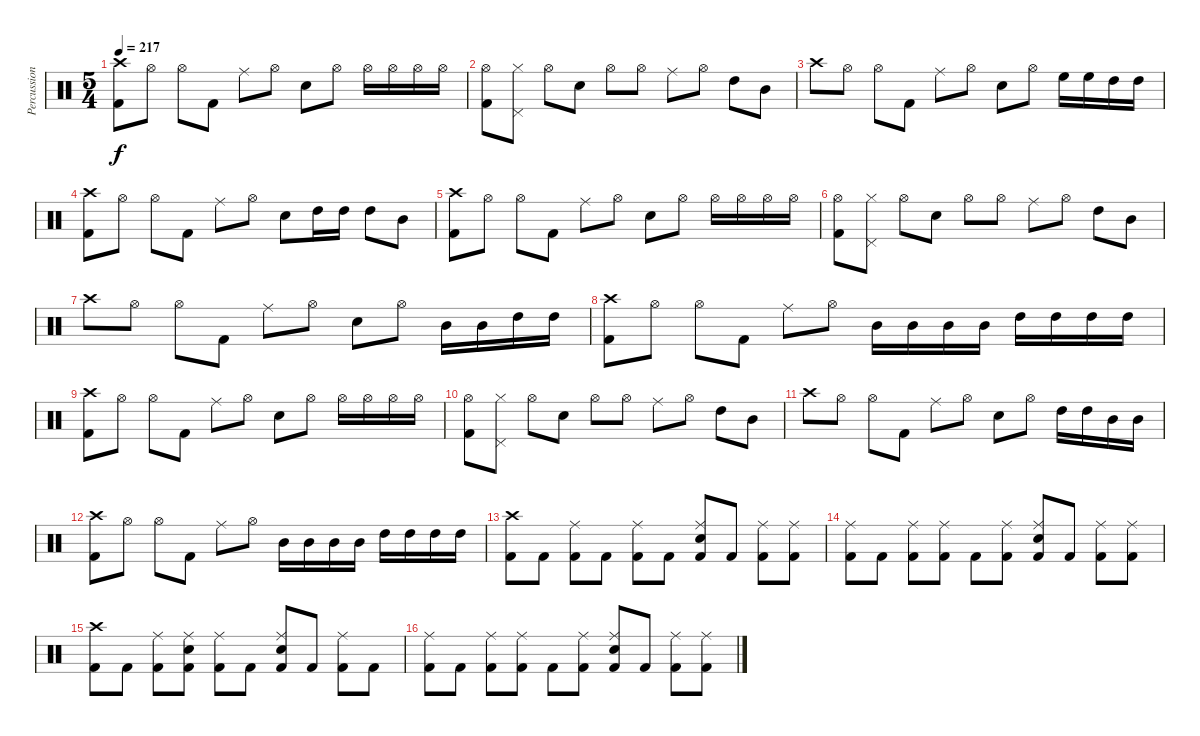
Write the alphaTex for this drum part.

\track ("Percussion" "Percussion") {instrument percussion}
\staff {score}
\articulation defaults
\ts (5 4)
\tempo 217
\clef neutral
\ks c
("Crash high (hit)" "Kick (hit) 2").8{dy f} "Hi-Hat (open)".8 "Hi-Hat (open)".8 "Kick (hit) 2".8 "Ride (middle)".8 "Hi-Hat (open)".8 "Electric Snare (hit)".8 "Hi-Hat (open)".8 "Hi-Hat (open)".16 "Hi-Hat (open)".16 "Hi-Hat (open)".16 "Hi-Hat (open)".16 |
("Hi-Hat (open)" "Kick (hit) 2").8 ("Hi-Hat (closed)" "Pedal Hi-Hat (hit)").8 "Hi-Hat (open)".8 "Electric Snare (hit)".8 "Hi-Hat (open)".8 "Hi-Hat (open)".8 "Ride (middle)".8 "Hi-Hat (open)".8 "High Tom (hit)".8 "Mid Tom (hit)".8 |
"Crash high (hit)".8 "Hi-Hat (open)".8 "Hi-Hat (open)".8 "Kick (hit) 2".8 "Ride (middle)".8 "Hi-Hat (open)".8 "Electric Snare (hit)".8 "Hi-Hat (open)".8 "High Floor Tom (hit)".16 "High Floor Tom (hit)".16 "High Tom (hit)".16 "High Tom (hit)".16 |
("Crash high (hit)" "Kick (hit) 2").8 "Hi-Hat (open)".8 "Hi-Hat (open)".8 "Kick (hit) 2".8 "Ride (middle)".8 "Hi-Hat (open)".8 "Electric Snare (hit)".8 "High Tom (hit)".16 "High Tom (hit)".16 "High Tom (hit)".8 "Mid Tom (hit)".8 |
("Crash high (hit)" "Kick (hit) 2").8 "Hi-Hat (open)".8 "Hi-Hat (open)".8 "Kick (hit) 2".8 "Ride (middle)".8 "Hi-Hat (open)".8 "Electric Snare (hit)".8 "Hi-Hat (open)".8 "Hi-Hat (open)".16 "Hi-Hat (open)".16 "Hi-Hat (open)".16 "Hi-Hat (open)".16 |
("Hi-Hat (open)" "Kick (hit) 2").8 ("Hi-Hat (closed)" "Pedal Hi-Hat (hit)").8 "Hi-Hat (open)".8 "Electric Snare (hit)".8 "Hi-Hat (open)".8 "Hi-Hat (open)".8 "Ride (middle)".8 "Hi-Hat (open)".8 "High Tom (hit)".8 "Mid Tom (hit)".8 |
"Crash high (hit)".8 "Hi-Hat (open)".8 "Hi-Hat (open)".8 "Kick (hit) 2".8 "Ride (middle)".8 "Hi-Hat (open)".8 "Electric Snare (hit)".8 "Hi-Hat (open)".8 "Mid Tom (hit)".16 "Mid Tom (hit)".16 "High Tom (hit)".16 "High Tom (hit)".16 |
("Crash high (hit)" "Kick (hit) 2").8 "Hi-Hat (open)".8 "Hi-Hat (open)".8 "Kick (hit) 2".8 "Ride (middle)".8 "Hi-Hat (open)".8 "Mid Tom (hit)".16 "Mid Tom (hit)".16 "Mid Tom (hit)".16 "Mid Tom (hit)".16 "High Tom (hit)".16 "High Tom (hit)".16 "High Tom (hit)".16 "High Tom (hit)".16 |
("Crash high (hit)" "Kick (hit) 2").8 "Hi-Hat (open)".8 "Hi-Hat (open)".8 "Kick (hit) 2".8 "Ride (middle)".8 "Hi-Hat (open)".8 "Electric Snare (hit)".8 "Hi-Hat (open)".8 "Hi-Hat (open)".16 "Hi-Hat (open)".16 "Hi-Hat (open)".16 "Hi-Hat (open)".16 |
("Hi-Hat (open)" "Kick (hit) 2").8 ("Hi-Hat (closed)" "Pedal Hi-Hat (hit)").8 "Hi-Hat (open)".8 "Electric Snare (hit)".8 "Hi-Hat (open)".8 "Hi-Hat (open)".8 "Ride (middle)".8 "Hi-Hat (open)".8 "High Tom (hit)".8 "Mid Tom (hit)".8 |
"Crash high (hit)".8 "Hi-Hat (open)".8 "Hi-Hat (open)".8 "Kick (hit) 2".8 "Ride (middle)".8 "Hi-Hat (open)".8 "Electric Snare (hit)".8 "Hi-Hat (open)".8 "High Tom (hit)".16 "High Tom (hit)".16 "Mid Tom (hit)".16 "Mid Tom (hit)".16 |
("Crash high (hit)" "Kick (hit) 2").8 "Hi-Hat (open)".8 "Hi-Hat (open)".8 "Kick (hit) 2".8 "Ride (middle)".8 "Hi-Hat (open)".8 "Mid Tom (hit)".16 "Mid Tom (hit)".16 "Mid Tom (hit)".16 "Mid Tom (hit)".16 "High Tom (hit)".16 "High Tom (hit)".16 "High Tom (hit)".16 "High Tom (hit)".16 |
("Crash high (hit)" "Kick (hit) 2").8 "Kick (hit) 2".8 ("Ride (middle)" "Kick (hit) 2").8 "Kick (hit) 2".8 ("Ride (middle)" "Kick (hit) 2").8 "Kick (hit) 2".8 ("Ride (middle)" "Electric Snare (hit)" "Kick (hit) 2").8 "Kick (hit) 2".8 ("Ride (middle)" "Kick (hit) 2").8 ("Ride (middle)" "Kick (hit) 2").8 |
("Ride (middle)" "Kick (hit) 2").8 "Kick (hit) 2".8 ("Ride (middle)" "Kick (hit) 2").8 ("Ride (middle)" "Kick (hit) 2").8 "Kick (hit) 2".8 ("Ride (middle)" "Kick (hit) 2").8 ("Ride (middle)" "Electric Snare (hit)" "Kick (hit) 2").8 "Kick (hit) 2".8 ("Ride (middle)" "Kick (hit) 2").8 ("Ride (middle)" "Kick (hit) 2").8 |
("Crash high (hit)" "Kick (hit) 2").8 "Kick (hit) 2".8 ("Ride (middle)" "Kick (hit) 2").8 ("Ride (middle)" "Electric Snare (hit)" "Kick (hit) 2").8 ("Ride (middle)" "Kick (hit) 2").8 "Kick (hit) 2".8 ("Ride (middle)" "Electric Snare (hit)" "Kick (hit) 2").8 "Kick (hit) 2".8 ("Ride (middle)" "Kick (hit) 2").8 "Kick (hit) 2".8 |
("Ride (middle)" "Kick (hit) 2").8 "Kick (hit) 2".8 ("Ride (middle)" "Kick (hit) 2").8 ("Ride (middle)" "Kick (hit) 2").8 "Kick (hit) 2".8 ("Ride (middle)" "Kick (hit) 2").8 ("Ride (middle)" "Electric Snare (hit)" "Kick (hit) 2").8 "Kick (hit) 2".8 ("Ride (middle)" "Kick (hit) 2").8 ("Ride (middle)" "Kick (hit) 2").8
